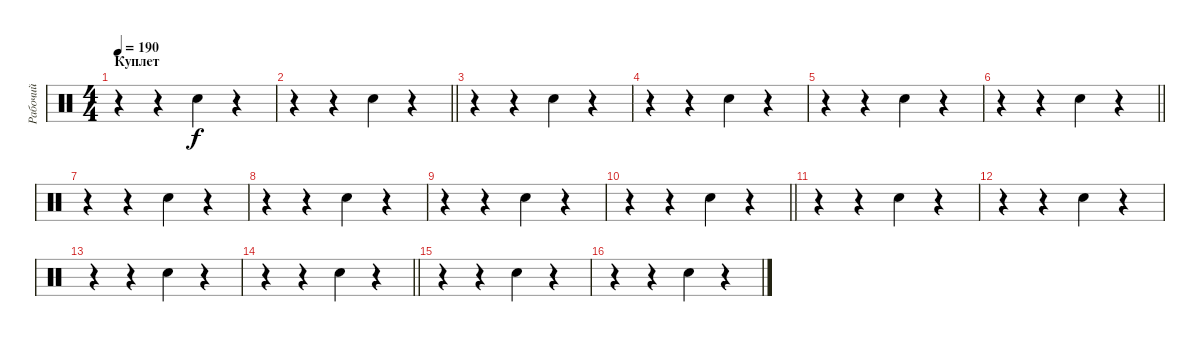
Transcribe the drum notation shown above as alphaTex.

\track ("Рабочий" "Рабочий") {instrument percussion}
\staff {score}
\articulation defaults
\ts (4 4)
\section ("" "Куплет")
\tempo 190
\clef neutral
\ks c
r.4{dy f} r.4 "Snare (hit) 2".4 r.4 |
\barLineRight lightlight
r.4 r.4 "Snare (hit) 2".4 r.4 |
r.4 r.4 "Snare (hit) 2".4 r.4 |
r.4 r.4 "Snare (hit) 2".4 r.4 |
r.4 r.4 "Snare (hit) 2".4 r.4 |
\barLineRight lightlight
r.4 r.4 "Snare (hit) 2".4 r.4 |
r.4 r.4 "Snare (hit) 2".4 r.4 |
r.4 r.4 "Snare (hit) 2".4 r.4 |
r.4 r.4 "Snare (hit) 2".4 r.4 |
\barLineRight lightlight
r.4 r.4 "Snare (hit) 2".4 r.4 |
r.4 r.4 "Snare (hit) 2".4 r.4 |
r.4 r.4 "Snare (hit) 2".4 r.4 |
r.4 r.4 "Snare (hit) 2".4 r.4 |
\barLineRight lightlight
r.4 r.4 "Snare (hit) 2".4 r.4 |
r.4 r.4 "Snare (hit) 2".4 r.4 |
r.4 r.4 "Snare (hit) 2".4 r.4
